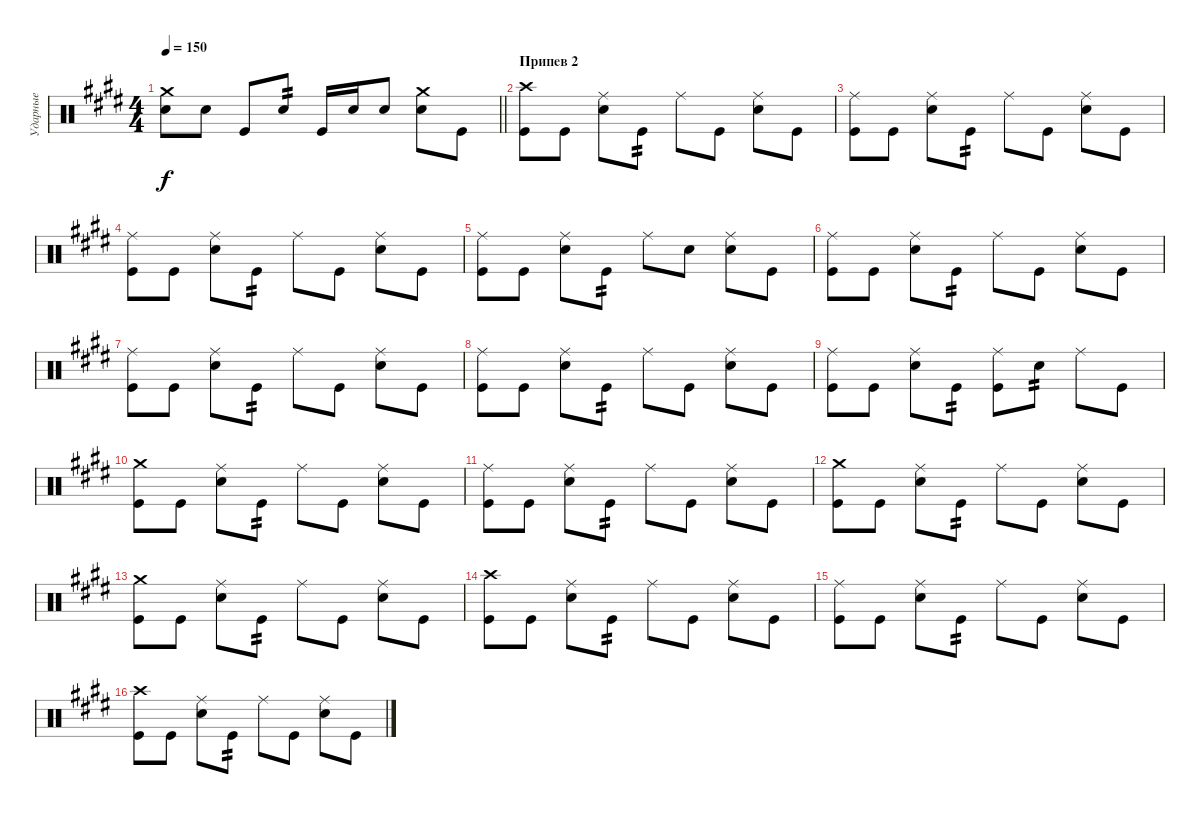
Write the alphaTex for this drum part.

\track ("Ударные" "Ударные") {instrument percussion}
\staff {score}
\articulation defaults
\ts (4 4)
\tempo 150
\clef neutral
\barLineRight lightlight
\ks c#minor
("Crash medium (hit)" "Snare (hit) 2").8{dy f} "Snare (hit) 2".8 "Kick (hit)".8 "Snare (hit) 2".8{tp 2} "Kick (hit)".16 "Snare (hit) 2".16 "Snare (hit) 2".8 ("Crash medium (hit)" "Snare (hit) 2").8 "Kick (hit)".8 |
\section ("" "Припев 2")
("Crash high (hit)" "Kick (hit)").8 "Kick (hit)".8 ("Ride (middle)" "Snare (hit) 2").8 "Kick (hit)".8{tp 2} "Ride (middle)".8 "Kick (hit)".8 ("Ride (middle)" "Snare (hit) 2").8 "Kick (hit)".8 |
("Ride (middle)" "Kick (hit)").8 "Kick (hit)".8 ("Ride (middle)" "Snare (hit) 2").8 "Kick (hit)".8{tp 2} "Ride (middle)".8 "Kick (hit)".8 ("Ride (middle)" "Snare (hit) 2").8 "Kick (hit)".8 |
("Ride (middle)" "Kick (hit)").8 "Kick (hit)".8 ("Ride (middle)" "Snare (hit) 2").8 "Kick (hit)".8{tp 2} "Ride (middle)".8 "Kick (hit)".8 ("Ride (middle)" "Snare (hit) 2").8 "Kick (hit)".8 |
("Ride (middle)" "Kick (hit)").8 "Kick (hit)".8 ("Ride (middle)" "Snare (hit) 2").8 "Kick (hit)".8{tp 2} "Ride (middle)".8 "Snare (hit) 2".8 ("Ride (middle)" "Snare (hit) 2").8 "Kick (hit)".8 |
("Ride (middle)" "Kick (hit)").8 "Kick (hit)".8 ("Ride (middle)" "Snare (hit) 2").8 "Kick (hit)".8{tp 2} "Ride (middle)".8 "Kick (hit)".8 ("Ride (middle)" "Snare (hit) 2").8 "Kick (hit)".8 |
("Ride (middle)" "Kick (hit)").8 "Kick (hit)".8 ("Ride (middle)" "Snare (hit) 2").8 "Kick (hit)".8{tp 2} "Ride (middle)".8 "Kick (hit)".8 ("Ride (middle)" "Snare (hit) 2").8 "Kick (hit)".8 |
("Ride (middle)" "Kick (hit)").8 "Kick (hit)".8 ("Ride (middle)" "Snare (hit) 2").8 "Kick (hit)".8{tp 2} "Ride (middle)".8 "Kick (hit)".8 ("Ride (middle)" "Snare (hit) 2").8 "Kick (hit)".8 |
("Ride (middle)" "Kick (hit)").8 "Kick (hit)".8 ("Ride (middle)" "Snare (hit) 2").8 "Kick (hit)".8{tp 2} ("Ride (middle)" "Kick (hit)").8 "Snare (hit) 2".8{tp 2} "Ride (middle)".8 "Kick (hit)".8 |
("Crash medium (hit)" "Kick (hit)").8 "Kick (hit)".8 ("Ride (middle)" "Snare (hit) 2").8 "Kick (hit)".8{tp 2} "Ride (middle)".8 "Kick (hit)".8 ("Ride (middle)" "Snare (hit) 2").8 "Kick (hit)".8 |
("Ride (middle)" "Kick (hit)").8 "Kick (hit)".8 ("Ride (middle)" "Snare (hit) 2").8 "Kick (hit)".8{tp 2} "Ride (middle)".8 "Kick (hit)".8 ("Ride (middle)" "Snare (hit) 2").8 "Kick (hit)".8 |
("Crash medium (hit)" "Kick (hit)").8 "Kick (hit)".8 ("Ride (middle)" "Snare (hit) 2").8 "Kick (hit)".8{tp 2} "Ride (middle)".8 "Kick (hit)".8 ("Ride (middle)" "Snare (hit) 2").8 "Kick (hit)".8 |
("Crash medium (hit)" "Kick (hit)").8 "Kick (hit)".8 ("Ride (middle)" "Snare (hit) 2").8 "Kick (hit)".8{tp 2} "Ride (middle)".8 "Kick (hit)".8 ("Ride (middle)" "Snare (hit) 2").8 "Kick (hit)".8 |
("Crash high (hit)" "Kick (hit)").8 "Kick (hit)".8 ("Ride (middle)" "Snare (hit) 2").8 "Kick (hit)".8{tp 2} "Ride (middle)".8 "Kick (hit)".8 ("Ride (middle)" "Snare (hit) 2").8 "Kick (hit)".8 |
("Ride (middle)" "Kick (hit)").8 "Kick (hit)".8 ("Ride (middle)" "Snare (hit) 2").8 "Kick (hit)".8{tp 2} "Ride (middle)".8 "Kick (hit)".8 ("Ride (middle)" "Snare (hit) 2").8 "Kick (hit)".8 |
("Crash high (hit)" "Kick (hit)").8 "Kick (hit)".8 ("Ride (middle)" "Snare (hit) 2").8 "Kick (hit)".8{tp 2} "Ride (middle)".8 "Kick (hit)".8 ("Ride (middle)" "Snare (hit) 2").8 "Kick (hit)".8
